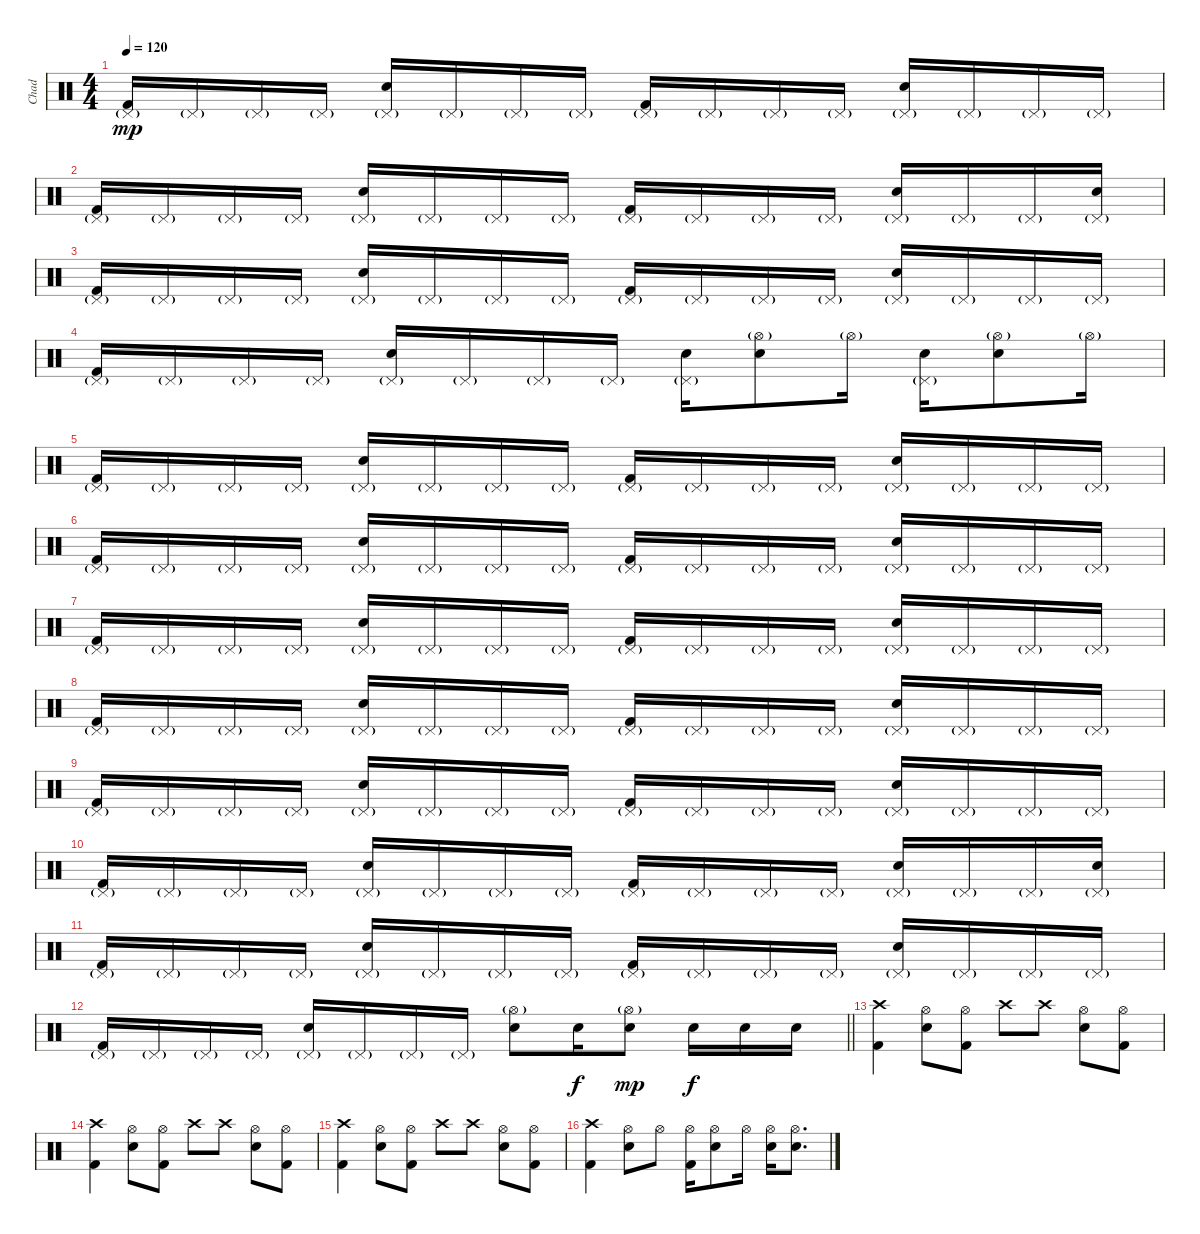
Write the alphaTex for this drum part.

\track ("Chad" "Chad") {instrument percussion}
\staff {score}
\articulation defaults
\ts (4 4)
\tempo 120
\clef neutral
\ks c
("Kick (hit) 2" "Pedal Hi-Hat (hit)"{g}).16{dy mp} "Pedal Hi-Hat (hit)"{g}.16 "Pedal Hi-Hat (hit)"{g}.16 "Pedal Hi-Hat (hit)"{g}.16 ("Electric Snare (hit)" "Pedal Hi-Hat (hit)"{g}).16 "Pedal Hi-Hat (hit)"{g}.16 "Pedal Hi-Hat (hit)"{g}.16 "Pedal Hi-Hat (hit)"{g}.16 ("Kick (hit) 2" "Pedal Hi-Hat (hit)"{g}).16 "Pedal Hi-Hat (hit)"{g}.16 "Pedal Hi-Hat (hit)"{g}.16 "Pedal Hi-Hat (hit)"{g}.16 ("Electric Snare (hit)" "Pedal Hi-Hat (hit)"{g}).16 "Pedal Hi-Hat (hit)"{g}.16 "Pedal Hi-Hat (hit)"{g}.16 "Pedal Hi-Hat (hit)"{g}.16 |
("Kick (hit) 2" "Pedal Hi-Hat (hit)"{g}).16 "Pedal Hi-Hat (hit)"{g}.16 "Pedal Hi-Hat (hit)"{g}.16 "Pedal Hi-Hat (hit)"{g}.16 ("Electric Snare (hit)" "Pedal Hi-Hat (hit)"{g}).16 "Pedal Hi-Hat (hit)"{g}.16 "Pedal Hi-Hat (hit)"{g}.16 "Pedal Hi-Hat (hit)"{g}.16 ("Kick (hit) 2" "Pedal Hi-Hat (hit)"{g}).16 "Pedal Hi-Hat (hit)"{g}.16 "Pedal Hi-Hat (hit)"{g}.16 "Pedal Hi-Hat (hit)"{g}.16 ("Electric Snare (hit)" "Pedal Hi-Hat (hit)"{g}).16 "Pedal Hi-Hat (hit)"{g}.16 "Pedal Hi-Hat (hit)"{g}.16 ("Electric Snare (hit)" "Pedal Hi-Hat (hit)"{g}).16 |
("Kick (hit) 2" "Pedal Hi-Hat (hit)"{g}).16 "Pedal Hi-Hat (hit)"{g}.16 "Pedal Hi-Hat (hit)"{g}.16 "Pedal Hi-Hat (hit)"{g}.16 ("Electric Snare (hit)" "Pedal Hi-Hat (hit)"{g}).16 "Pedal Hi-Hat (hit)"{g}.16 "Pedal Hi-Hat (hit)"{g}.16 "Pedal Hi-Hat (hit)"{g}.16 ("Kick (hit) 2" "Pedal Hi-Hat (hit)"{g}).16 "Pedal Hi-Hat (hit)"{g}.16 "Pedal Hi-Hat (hit)"{g}.16 "Pedal Hi-Hat (hit)"{g}.16 ("Electric Snare (hit)" "Pedal Hi-Hat (hit)"{g}).16 "Pedal Hi-Hat (hit)"{g}.16 "Pedal Hi-Hat (hit)"{g}.16 "Pedal Hi-Hat (hit)"{g}.16 |
("Kick (hit) 2" "Pedal Hi-Hat (hit)"{g}).16 "Pedal Hi-Hat (hit)"{g}.16 "Pedal Hi-Hat (hit)"{g}.16 "Pedal Hi-Hat (hit)"{g}.16 ("Electric Snare (hit)" "Pedal Hi-Hat (hit)"{g}).16 "Pedal Hi-Hat (hit)"{g}.16 "Pedal Hi-Hat (hit)"{g}.16 "Pedal Hi-Hat (hit)"{g}.16 ("Electric Snare (hit)" "Pedal Hi-Hat (hit)"{g}).16 ("Electric Snare (hit)" "Hi-Hat (open)"{g}).8 "Hi-Hat (open)"{g}.16 ("Electric Snare (hit)" "Pedal Hi-Hat (hit)"{g}).16 ("Electric Snare (hit)" "Hi-Hat (open)"{g}).8 "Hi-Hat (open)"{g}.16 |
("Kick (hit) 2" "Pedal Hi-Hat (hit)"{g}).16 "Pedal Hi-Hat (hit)"{g}.16 "Pedal Hi-Hat (hit)"{g}.16 "Pedal Hi-Hat (hit)"{g}.16 ("Electric Snare (hit)" "Pedal Hi-Hat (hit)"{g}).16 "Pedal Hi-Hat (hit)"{g}.16 "Pedal Hi-Hat (hit)"{g}.16 "Pedal Hi-Hat (hit)"{g}.16 ("Kick (hit) 2" "Pedal Hi-Hat (hit)"{g}).16 "Pedal Hi-Hat (hit)"{g}.16 "Pedal Hi-Hat (hit)"{g}.16 "Pedal Hi-Hat (hit)"{g}.16 ("Electric Snare (hit)" "Pedal Hi-Hat (hit)"{g}).16 "Pedal Hi-Hat (hit)"{g}.16 "Pedal Hi-Hat (hit)"{g}.16 "Pedal Hi-Hat (hit)"{g}.16 |
("Kick (hit) 2" "Pedal Hi-Hat (hit)"{g}).16 "Pedal Hi-Hat (hit)"{g}.16 "Pedal Hi-Hat (hit)"{g}.16 "Pedal Hi-Hat (hit)"{g}.16 ("Electric Snare (hit)" "Pedal Hi-Hat (hit)"{g}).16 "Pedal Hi-Hat (hit)"{g}.16 "Pedal Hi-Hat (hit)"{g}.16 "Pedal Hi-Hat (hit)"{g}.16 ("Kick (hit) 2" "Pedal Hi-Hat (hit)"{g}).16 "Pedal Hi-Hat (hit)"{g}.16 "Pedal Hi-Hat (hit)"{g}.16 "Pedal Hi-Hat (hit)"{g}.16 ("Electric Snare (hit)" "Pedal Hi-Hat (hit)"{g}).16 "Pedal Hi-Hat (hit)"{g}.16 "Pedal Hi-Hat (hit)"{g}.16 "Pedal Hi-Hat (hit)"{g}.16 |
("Kick (hit) 2" "Pedal Hi-Hat (hit)"{g}).16 "Pedal Hi-Hat (hit)"{g}.16 "Pedal Hi-Hat (hit)"{g}.16 "Pedal Hi-Hat (hit)"{g}.16 ("Electric Snare (hit)" "Pedal Hi-Hat (hit)"{g}).16 "Pedal Hi-Hat (hit)"{g}.16 "Pedal Hi-Hat (hit)"{g}.16 "Pedal Hi-Hat (hit)"{g}.16 ("Kick (hit) 2" "Pedal Hi-Hat (hit)"{g}).16 "Pedal Hi-Hat (hit)"{g}.16 "Pedal Hi-Hat (hit)"{g}.16 "Pedal Hi-Hat (hit)"{g}.16 ("Electric Snare (hit)" "Pedal Hi-Hat (hit)"{g}).16 "Pedal Hi-Hat (hit)"{g}.16 "Pedal Hi-Hat (hit)"{g}.16 "Pedal Hi-Hat (hit)"{g}.16 |
("Kick (hit) 2" "Pedal Hi-Hat (hit)"{g}).16 "Pedal Hi-Hat (hit)"{g}.16 "Pedal Hi-Hat (hit)"{g}.16 "Pedal Hi-Hat (hit)"{g}.16 ("Electric Snare (hit)" "Pedal Hi-Hat (hit)"{g}).16 "Pedal Hi-Hat (hit)"{g}.16 "Pedal Hi-Hat (hit)"{g}.16 "Pedal Hi-Hat (hit)"{g}.16 ("Kick (hit) 2" "Pedal Hi-Hat (hit)"{g}).16 "Pedal Hi-Hat (hit)"{g}.16 "Pedal Hi-Hat (hit)"{g}.16 "Pedal Hi-Hat (hit)"{g}.16 ("Electric Snare (hit)" "Pedal Hi-Hat (hit)"{g}).16 "Pedal Hi-Hat (hit)"{g}.16 "Pedal Hi-Hat (hit)"{g}.16 "Pedal Hi-Hat (hit)"{g}.16 |
("Kick (hit) 2" "Pedal Hi-Hat (hit)"{g}).16 "Pedal Hi-Hat (hit)"{g}.16 "Pedal Hi-Hat (hit)"{g}.16 "Pedal Hi-Hat (hit)"{g}.16 ("Electric Snare (hit)" "Pedal Hi-Hat (hit)"{g}).16 "Pedal Hi-Hat (hit)"{g}.16 "Pedal Hi-Hat (hit)"{g}.16 "Pedal Hi-Hat (hit)"{g}.16 ("Kick (hit) 2" "Pedal Hi-Hat (hit)"{g}).16 "Pedal Hi-Hat (hit)"{g}.16 "Pedal Hi-Hat (hit)"{g}.16 "Pedal Hi-Hat (hit)"{g}.16 ("Electric Snare (hit)" "Pedal Hi-Hat (hit)"{g}).16 "Pedal Hi-Hat (hit)"{g}.16 "Pedal Hi-Hat (hit)"{g}.16 "Pedal Hi-Hat (hit)"{g}.16 |
("Kick (hit) 2" "Pedal Hi-Hat (hit)"{g}).16 "Pedal Hi-Hat (hit)"{g}.16 "Pedal Hi-Hat (hit)"{g}.16 "Pedal Hi-Hat (hit)"{g}.16 ("Electric Snare (hit)" "Pedal Hi-Hat (hit)"{g}).16 "Pedal Hi-Hat (hit)"{g}.16 "Pedal Hi-Hat (hit)"{g}.16 "Pedal Hi-Hat (hit)"{g}.16 ("Kick (hit) 2" "Pedal Hi-Hat (hit)"{g}).16 "Pedal Hi-Hat (hit)"{g}.16 "Pedal Hi-Hat (hit)"{g}.16 "Pedal Hi-Hat (hit)"{g}.16 ("Electric Snare (hit)" "Pedal Hi-Hat (hit)"{g}).16 "Pedal Hi-Hat (hit)"{g}.16 "Pedal Hi-Hat (hit)"{g}.16 ("Electric Snare (hit)" "Pedal Hi-Hat (hit)"{g}).16 |
("Kick (hit) 2" "Pedal Hi-Hat (hit)"{g}).16 "Pedal Hi-Hat (hit)"{g}.16 "Pedal Hi-Hat (hit)"{g}.16 "Pedal Hi-Hat (hit)"{g}.16 ("Electric Snare (hit)" "Pedal Hi-Hat (hit)"{g}).16 "Pedal Hi-Hat (hit)"{g}.16 "Pedal Hi-Hat (hit)"{g}.16 "Pedal Hi-Hat (hit)"{g}.16 ("Kick (hit) 2" "Pedal Hi-Hat (hit)"{g}).16 "Pedal Hi-Hat (hit)"{g}.16 "Pedal Hi-Hat (hit)"{g}.16 "Pedal Hi-Hat (hit)"{g}.16 ("Electric Snare (hit)" "Pedal Hi-Hat (hit)"{g}).16 "Pedal Hi-Hat (hit)"{g}.16 "Pedal Hi-Hat (hit)"{g}.16 "Pedal Hi-Hat (hit)"{g}.16 |
\barLineRight lightlight
("Kick (hit) 2" "Pedal Hi-Hat (hit)"{g}).16 "Pedal Hi-Hat (hit)"{g}.16 "Pedal Hi-Hat (hit)"{g}.16 "Pedal Hi-Hat (hit)"{g}.16 ("Electric Snare (hit)" "Pedal Hi-Hat (hit)"{g}).16 "Pedal Hi-Hat (hit)"{g}.16 "Pedal Hi-Hat (hit)"{g}.16 "Pedal Hi-Hat (hit)"{g}.16 ("Electric Snare (hit)" "Hi-Hat (open)"{g}).8 "Electric Snare (hit)".16{dy f} ("Electric Snare (hit)" "Hi-Hat (open)"{g}).8{dy mp} "Electric Snare (hit)".16{dy f} "Electric Snare (hit)".16 "Electric Snare (hit)".16 |
("Kick (hit) 2" "Crash high (hit)").4 ("Electric Snare (hit)" "Hi-Hat (open)").8 ("Kick (hit) 2" "Hi-Hat (open)").8 "Crash high (hit)".8 "Crash high (hit)".8 ("Electric Snare (hit)" "Hi-Hat (open)").8 ("Kick (hit) 2" "Hi-Hat (open)").8 |
("Kick (hit) 2" "Crash high (hit)").4 ("Electric Snare (hit)" "Hi-Hat (open)").8 ("Kick (hit) 2" "Hi-Hat (open)").8 "Crash high (hit)".8 "Crash high (hit)".8 ("Electric Snare (hit)" "Hi-Hat (open)").8 ("Kick (hit) 2" "Hi-Hat (open)").8 |
("Kick (hit) 2" "Crash high (hit)").4 ("Electric Snare (hit)" "Hi-Hat (open)").8 ("Kick (hit) 2" "Hi-Hat (open)").8 "Crash high (hit)".8 "Crash high (hit)".8 ("Electric Snare (hit)" "Hi-Hat (open)").8 ("Kick (hit) 2" "Hi-Hat (open)").8 |
("Kick (hit) 2" "Crash high (hit)").4 ("Electric Snare (hit)" "Hi-Hat (open)").8 "Hi-Hat (open)".8 ("Kick (hit) 2" "Hi-Hat (open)").16 ("Electric Snare (hit)" "Hi-Hat (open)").8 "Hi-Hat (open)".16 ("Electric Snare (hit)" "Hi-Hat (open)").16 ("Electric Snare (hit)" "Hi-Hat (open)").8{d}
